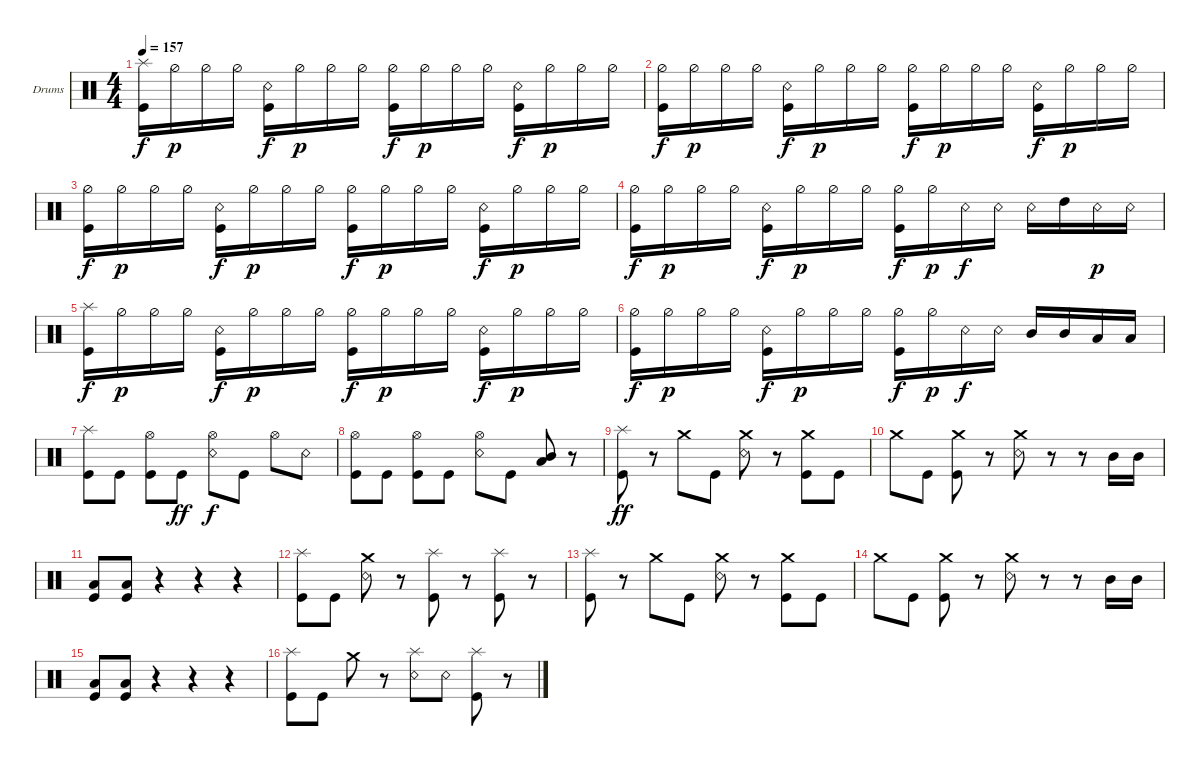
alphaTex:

\defaultSystemsLayout 4
\bracketExtendMode groupsimilarinstruments
\firstSystemTrackNameOrientation horizontal
\otherSystemsTrackNameOrientation horizontal
\track ("Drumkit" "Drums") {instrument percussion}
\staff {score}
\articulation defaults
\ts (4 4)
\tempo 157
\clef neutral
\ks c
("Kick (hit)" "Splash (hit)").16{dy f} "Hi-Hat (half)".16{dy p} "Hi-Hat (half)".16 "Hi-Hat (half)".16 ("Kick (hit)" "Snare (rim shot)").16{dy f} "Hi-Hat (half)".16{dy p} "Hi-Hat (half)".16 "Hi-Hat (half)".16 ("Hi-Hat (half)" "Kick (hit)").16{dy f} "Hi-Hat (half)".16{dy p} "Hi-Hat (half)".16 "Hi-Hat (half)".16 ("Kick (hit)" "Snare (rim shot)").16{dy f} "Hi-Hat (half)".16{dy p} "Hi-Hat (half)".16 "Hi-Hat (half)".16 |
("Kick (hit)" "Hi-Hat (half)").16{dy f} "Hi-Hat (half)".16{dy p} "Hi-Hat (half)".16 "Hi-Hat (half)".16 ("Kick (hit)" "Snare (rim shot)").16{dy f} "Hi-Hat (half)".16{dy p} "Hi-Hat (half)".16 "Hi-Hat (half)".16 ("Hi-Hat (half)" "Kick (hit)").16{dy f} "Hi-Hat (half)".16{dy p} "Hi-Hat (half)".16 "Hi-Hat (half)".16 ("Kick (hit)" "Snare (rim shot)").16{dy f} "Hi-Hat (half)".16{dy p} "Hi-Hat (half)".16 "Hi-Hat (half)".16 |
("Kick (hit)" "Hi-Hat (half)").16{dy f} "Hi-Hat (half)".16{dy p} "Hi-Hat (half)".16 "Hi-Hat (half)".16 ("Kick (hit)" "Snare (rim shot)").16{dy f} "Hi-Hat (half)".16{dy p} "Hi-Hat (half)".16 "Hi-Hat (half)".16 ("Hi-Hat (half)" "Kick (hit)").16{dy f} "Hi-Hat (half)".16{dy p} "Hi-Hat (half)".16 "Hi-Hat (half)".16 ("Kick (hit)" "Snare (rim shot)").16{dy f} "Hi-Hat (half)".16{dy p} "Hi-Hat (half)".16 "Hi-Hat (half)".16 |
("Kick (hit)" "Hi-Hat (half)").16{dy f} "Hi-Hat (half)".16{dy p} "Hi-Hat (half)".16 "Hi-Hat (half)".16 ("Kick (hit)" "Snare (rim shot)").16{dy f} "Hi-Hat (half)".16{dy p} "Hi-Hat (half)".16 "Hi-Hat (half)".16 ("Hi-Hat (half)" "Kick (hit)").16{dy f} "Hi-Hat (half)".16{dy p} "Snare (rim shot)".16{dy f} "Snare (rim shot)".16 "Snare (rim shot)".16 "High Tom (hit)".16 "Snare (rim shot)".16{dy p} "Snare (rim shot)".16 |
("Kick (hit)" "Splash (hit)").16{dy f} "Hi-Hat (half)".16{dy p} "Hi-Hat (half)".16 "Hi-Hat (half)".16 ("Kick (hit)" "Snare (rim shot)").16{dy f} "Hi-Hat (half)".16{dy p} "Hi-Hat (half)".16 "Hi-Hat (half)".16 ("Hi-Hat (half)" "Kick (hit)").16{dy f} "Hi-Hat (half)".16{dy p} "Hi-Hat (half)".16 "Hi-Hat (half)".16 ("Kick (hit)" "Snare (rim shot)").16{dy f} "Hi-Hat (half)".16{dy p} "Hi-Hat (half)".16 "Hi-Hat (half)".16 |
("Kick (hit)" "Hi-Hat (half)").16{dy f} "Hi-Hat (half)".16{dy p} "Hi-Hat (half)".16 "Hi-Hat (half)".16 ("Kick (hit)" "Snare (rim shot)").16{dy f} "Hi-Hat (half)".16{dy p} "Hi-Hat (half)".16 "Hi-Hat (half)".16 ("Hi-Hat (half)" "Kick (hit)").16{dy f} "Hi-Hat (half)".16{dy p} "Snare (rim shot)".16{dy f} "Snare (rim shot)".16 "Mid Tom (hit)".16 "Mid Tom (hit)".16 "Low Tom (hit)".16 "Low Tom (hit)".16 |
("Kick (hit)" "Splash (hit)").8 "Kick (hit)".8 ("Hi-Hat (open)" "Kick (hit)").8 "Kick (hit)".8{dy ff} ("Hi-Hat (open)" "Snare (rim shot)").8{dy f} "Kick (hit)".8 "Hi-Hat (open)".8 "Snare (rim shot)".8 |
("Kick (hit)" "Hi-Hat (open)").8 "Kick (hit)".8 ("Hi-Hat (open)" "Kick (hit)").8 "Kick (hit)".8 ("Hi-Hat (open)" "Snare (rim shot)").8 "Kick (hit)".8 ("Mid Tom (hit)" "Low Tom (hit)").8 r.8 |
("Kick (hit)" "Splash (hit)").8{dy ff} r.8 "Crash medium (hit)".8 "Kick (hit)".8 ("Crash medium (hit)" "Snare (rim shot)").8 r.8 ("Crash medium (hit)" "Kick (hit)").8 "Kick (hit)".8 |
"Crash medium (hit)".8 "Kick (hit)".8 ("Kick (hit)" "Crash medium (hit)").8 r.8 ("Crash medium (hit)" "Snare (rim shot)").8 r.8 r.8 "Mid Tom (hit)".16 "Mid Tom (hit)".16 |
("Kick (hit)" "Low Tom (hit)").8 ("Kick (hit)" "Low Tom (hit)").8 r.4 r.4 r.4 |
("Kick (hit)" "Splash (hit)").8 "Kick (hit)".8 ("Crash medium (hit)" "Snare (rim shot)").8 r.8 ("Kick (hit)" "Splash (hit)").8 r.8 ("Kick (hit)" "Splash (hit)").8 r.8 |
("Kick (hit)" "Splash (hit)").8 r.8 "Crash medium (hit)".8 "Kick (hit)".8 ("Crash medium (hit)" "Snare (rim shot)").8 r.8 ("Crash medium (hit)" "Kick (hit)").8 "Kick (hit)".8 |
"Crash medium (hit)".8 "Kick (hit)".8 ("Kick (hit)" "Crash medium (hit)").8 r.8 ("Crash medium (hit)" "Snare (rim shot)").8 r.8 r.8 "Mid Tom (hit)".16 "Mid Tom (hit)".16 |
("Kick (hit)" "Low Tom (hit)").8 ("Kick (hit)" "Low Tom (hit)").8 r.4 r.4 r.4 |
("Kick (hit)" "Splash (hit)").8 "Kick (hit)".8 "Crash medium (hit)".8 r.8 ("Splash (hit)" "Snare (rim shot)").8 "Snare (rim shot)".8 ("Kick (hit)" "Splash (hit)").8 r.8
